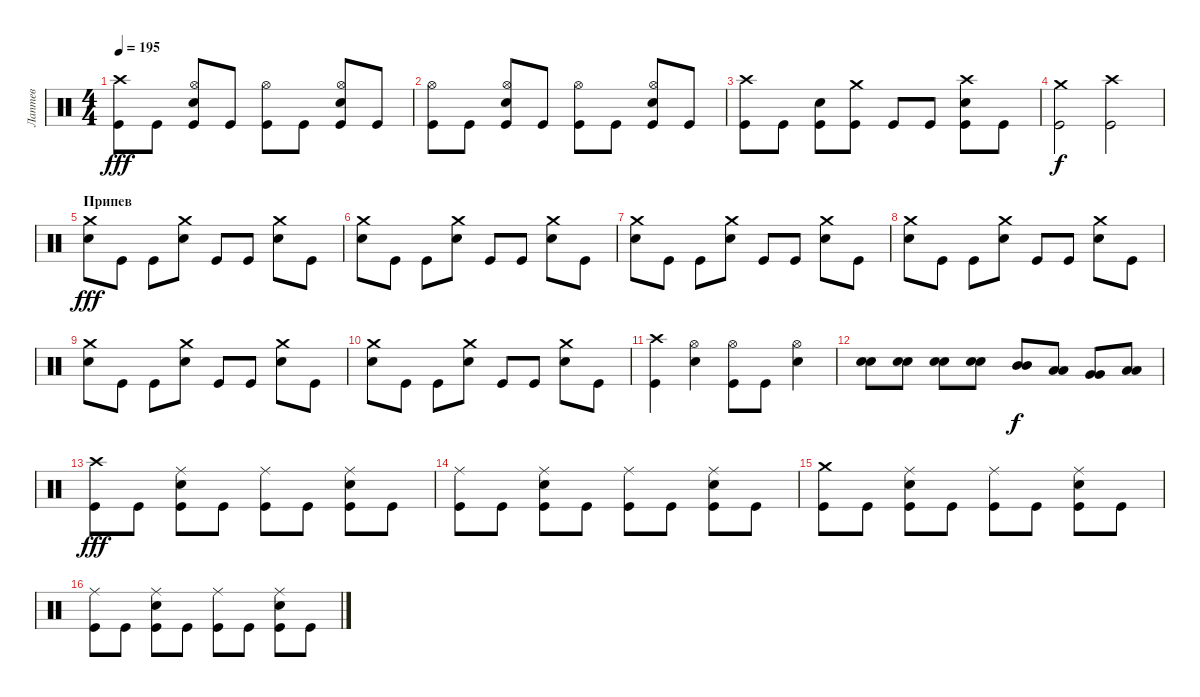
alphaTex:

\track ("Лаптев" "Лаптев") {instrument percussion}
\staff {score}
\articulation defaults
\ts (4 4)
\tempo 195
\clef neutral
\ks c
("Crash high (hit)" "Kick (hit)").8{dy fff} "Kick (hit)".8 ("Hi-Hat (open)" "Electric Snare (hit)" "Kick (hit)").8 "Kick (hit)".8 ("Hi-Hat (open)" "Kick (hit)").8 "Kick (hit)".8 ("Hi-Hat (open)" "Electric Snare (hit)" "Kick (hit)").8 "Kick (hit)".8 |
("Hi-Hat (open)" "Kick (hit)").8 "Kick (hit)".8 ("Hi-Hat (open)" "Electric Snare (hit)" "Kick (hit)").8 "Kick (hit)".8 ("Hi-Hat (open)" "Kick (hit)").8 "Kick (hit)".8 ("Hi-Hat (open)" "Electric Snare (hit)" "Kick (hit)").8 "Kick (hit)".8 |
("Crash high (hit)" "Kick (hit)").8 "Kick (hit)".8 ("Electric Snare (hit)" "Kick (hit)").8 ("Crash medium (hit)" "Kick (hit)").8 "Kick (hit)".8 "Kick (hit)".8 ("Crash high (hit)" "Electric Snare (hit)" "Kick (hit)").8 "Kick (hit)".8 |
("Crash medium (hit)" "Kick (hit)").2{dy f} ("Crash high (hit)" "Kick (hit)").2 |
\section ("" "Припев")
("Crash medium (hit)" "Electric Snare (hit)").8{dy fff} "Kick (hit)".8 "Kick (hit)".8 ("Crash medium (hit)" "Electric Snare (hit)").8 "Kick (hit)".8 "Kick (hit)".8 ("Crash medium (hit)" "Electric Snare (hit)").8 "Kick (hit)".8 |
("Crash medium (hit)" "Electric Snare (hit)").8 "Kick (hit)".8 "Kick (hit)".8 ("Crash medium (hit)" "Electric Snare (hit)").8 "Kick (hit)".8 "Kick (hit)".8 ("Crash medium (hit)" "Electric Snare (hit)").8 "Kick (hit)".8 |
("Crash medium (hit)" "Electric Snare (hit)").8 "Kick (hit)".8 "Kick (hit)".8 ("Crash medium (hit)" "Electric Snare (hit)").8 "Kick (hit)".8 "Kick (hit)".8 ("Crash medium (hit)" "Electric Snare (hit)").8 "Kick (hit)".8 |
("Crash medium (hit)" "Electric Snare (hit)").8 "Kick (hit)".8 "Kick (hit)".8 ("Crash medium (hit)" "Electric Snare (hit)").8 "Kick (hit)".8 "Kick (hit)".8 ("Crash medium (hit)" "Electric Snare (hit)").8 "Kick (hit)".8 |
("Crash medium (hit)" "Electric Snare (hit)").8 "Kick (hit)".8 "Kick (hit)".8 ("Crash medium (hit)" "Electric Snare (hit)").8 "Kick (hit)".8 "Kick (hit)".8 ("Crash medium (hit)" "Electric Snare (hit)").8 "Kick (hit)".8 |
("Crash medium (hit)" "Electric Snare (hit)").8 "Kick (hit)".8 "Kick (hit)".8 ("Crash medium (hit)" "Electric Snare (hit)").8 "Kick (hit)".8 "Kick (hit)".8 ("Crash medium (hit)" "Electric Snare (hit)").8 "Kick (hit)".8 |
("Crash high (hit)" "Kick (hit)").4 ("Hi-Hat (open)" "Electric Snare (hit)").4 ("Hi-Hat (open)" "Kick (hit)").8 "Kick (hit)".8 ("Hi-Hat (open)" "Electric Snare (hit)").4 |
("Electric Snare (hit)" "Electric Snare (hit)").8 ("Electric Snare (hit)" "Electric Snare (hit)").8 ("Electric Snare (hit)" "Electric Snare (hit)").8 ("Electric Snare (hit)" "Electric Snare (hit)").8 ("Mid Tom (hit)" "Mid Tom (hit)").8{dy f} ("Low Tom (hit)" "Low Tom (hit)").8 ("Very Low Tom (hit)" "Very Low Tom (hit)").8 ("Low Floor Tom (hit)" "Low Floor Tom (hit)").8 |
("Crash high (hit)" "Kick (hit)").8{dy fff} "Kick (hit)".8 ("Ride (middle)" "Electric Snare (hit)" "Kick (hit)").8 "Kick (hit)".8 ("Ride (middle)" "Kick (hit)").8 "Kick (hit)".8 ("Ride (middle)" "Electric Snare (hit)" "Kick (hit)").8 "Kick (hit)".8 |
("Ride (middle)" "Kick (hit)").8 "Kick (hit)".8 ("Ride (middle)" "Electric Snare (hit)" "Kick (hit)").8 "Kick (hit)".8 ("Ride (middle)" "Kick (hit)").8 "Kick (hit)".8 ("Ride (middle)" "Electric Snare (hit)" "Kick (hit)").8 "Kick (hit)".8 |
("Crash medium (hit)" "Kick (hit)").8 "Kick (hit)".8 ("Ride (middle)" "Electric Snare (hit)" "Kick (hit)").8 "Kick (hit)".8 ("Ride (middle)" "Kick (hit)").8 "Kick (hit)".8 ("Ride (middle)" "Electric Snare (hit)" "Kick (hit)").8 "Kick (hit)".8 |
("Ride (middle)" "Kick (hit)").8 "Kick (hit)".8 ("Ride (middle)" "Electric Snare (hit)" "Kick (hit)").8 "Kick (hit)".8 ("Ride (middle)" "Kick (hit)").8 "Kick (hit)".8 ("Ride (middle)" "Electric Snare (hit)" "Kick (hit)").8 "Kick (hit)".8
